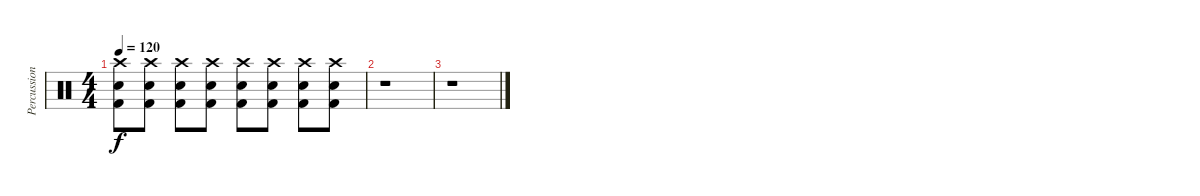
\track ("Percussion" "Percussion") {instrument percussion}
\staff {score}
\articulation defaults
\ts (4 4)
\tempo 120
\clef neutral
\ks c
("Crash high (hit)" "Snare (hit) 2" "Kick (hit) 2").8{dy f} ("Crash high (hit)" "Snare (hit) 2" "Kick (hit) 2").8 ("Crash high (hit)" "Snare (hit) 2" "Kick (hit) 2").8 ("Crash high (hit)" "Snare (hit) 2" "Kick (hit) 2").8 ("Crash high (hit)" "Snare (hit) 2" "Kick (hit) 2").8 ("Crash high (hit)" "Snare (hit) 2" "Kick (hit) 2").8 ("Crash high (hit)" "Snare (hit) 2" "Kick (hit) 2").8 ("Crash high (hit)" "Snare (hit) 2" "Kick (hit) 2").8 |
r.1 |
r.1
